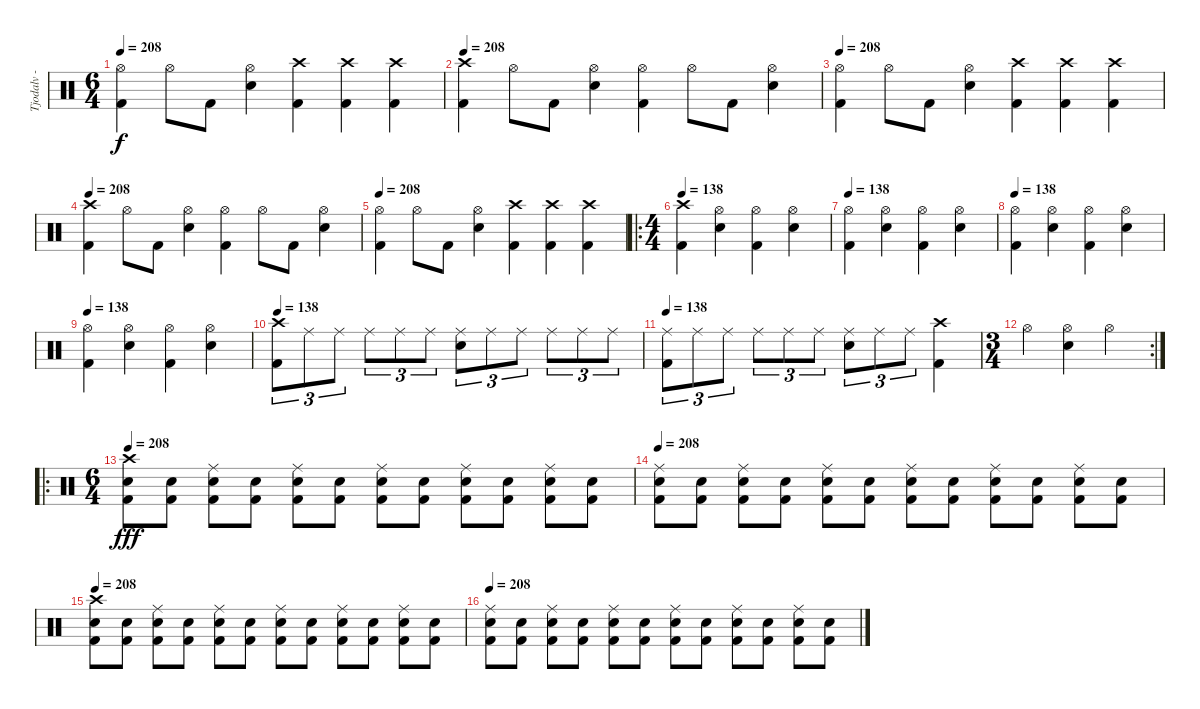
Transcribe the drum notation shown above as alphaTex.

\track ("Tjodalv - Drums" "Tjodalv - ") {instrument percussion}
\staff {score}
\articulation defaults
\ts (6 4)
\tempo 208
\clef neutral
\ks c
("Kick (hit) 2" "Hi-Hat (open)").4{dy f} "Hi-Hat (open)".8 "Kick (hit) 2".8 ("Snare (hit) 2" "Hi-Hat (open)").4 ("Kick (hit) 2" "Crash high (hit)").4 ("Kick (hit) 2" "Crash high (hit)").4 ("Kick (hit) 2" "Crash high (hit)").4 |
\tempo 208
("Kick (hit) 2" "Crash high (hit)").4 "Hi-Hat (open)".8 "Kick (hit) 2".8 ("Snare (hit) 2" "Hi-Hat (open)").4 ("Kick (hit) 2" "Hi-Hat (open)").4 "Hi-Hat (open)".8 "Kick (hit) 2".8 ("Snare (hit) 2" "Hi-Hat (open)").4 |
\tempo 208
("Kick (hit) 2" "Hi-Hat (open)").4 "Hi-Hat (open)".8 "Kick (hit) 2".8 ("Snare (hit) 2" "Hi-Hat (open)").4 ("Kick (hit) 2" "Crash high (hit)").4 ("Kick (hit) 2" "Crash high (hit)").4 ("Kick (hit) 2" "Crash high (hit)").4 |
\tempo 208
("Kick (hit) 2" "Crash high (hit)").4 "Hi-Hat (open)".8 "Kick (hit) 2".8 ("Snare (hit) 2" "Hi-Hat (open)").4 ("Kick (hit) 2" "Hi-Hat (open)").4 "Hi-Hat (open)".8 "Kick (hit) 2".8 ("Snare (hit) 2" "Hi-Hat (open)").4 |
\tempo 208
("Kick (hit) 2" "Hi-Hat (open)").4 "Hi-Hat (open)".8 "Kick (hit) 2".8 ("Snare (hit) 2" "Hi-Hat (open)").4 ("Kick (hit) 2" "Crash high (hit)").4 ("Kick (hit) 2" "Crash high (hit)").4 ("Kick (hit) 2" "Crash high (hit)").4 |
\ro
\ts (4 4)
\tempo 138
("Kick (hit) 2" "Crash high (hit)").4 ("Snare (hit) 2" "Hi-Hat (open)").4 ("Kick (hit) 2" "Hi-Hat (open)").4 ("Snare (hit) 2" "Hi-Hat (open)").4 |
\tempo 138
("Kick (hit) 2" "Hi-Hat (open)").4 ("Snare (hit) 2" "Hi-Hat (open)").4 ("Kick (hit) 2" "Hi-Hat (open)").4 ("Snare (hit) 2" "Hi-Hat (open)").4 |
\tempo 138
("Kick (hit) 2" "Hi-Hat (open)").4 ("Snare (hit) 2" "Hi-Hat (open)").4 ("Kick (hit) 2" "Hi-Hat (open)").4 ("Snare (hit) 2" "Hi-Hat (open)").4 |
\tempo 138
("Kick (hit) 2" "Hi-Hat (open)").4 ("Snare (hit) 2" "Hi-Hat (open)").4 ("Kick (hit) 2" "Hi-Hat (open)").4 ("Snare (hit) 2" "Hi-Hat (open)").4 |
\tempo 138
("Kick (hit) 2" "Crash high (hit)").8{tu (3 2)} "Ride (middle)".8{tu (3 2)} "Ride (middle)".8{tu (3 2)} "Ride (middle)".8{tu (3 2)} "Ride (middle)".8{tu (3 2)} "Ride (middle)".8{tu (3 2)} ("Snare (hit) 2" "Ride (middle)").8{tu (3 2)} "Ride (middle)".8{tu (3 2)} "Ride (middle)".8{tu (3 2)} "Ride (middle)".8{tu (3 2)} "Ride (middle)".8{tu (3 2)} "Ride (middle)".8{tu (3 2)} |
\tempo 138
("Kick (hit) 2" "Ride (middle)").8{tu (3 2)} "Ride (middle)".8{tu (3 2)} "Ride (middle)".8{tu (3 2)} "Ride (middle)".8{tu (3 2)} "Ride (middle)".8{tu (3 2)} "Ride (middle)".8{tu (3 2)} ("Snare (hit) 2" "Ride (middle)").8{tu (3 2)} "Ride (middle)".8{tu (3 2)} "Ride (middle)".8{tu (3 2)} ("Kick (hit) 2" "Crash high (hit)").4 |
\rc 2
\ts (3 4)
"Hi-Hat (open)".4 ("Snare (hit) 2" "Hi-Hat (open)").4 "Hi-Hat (open)".4 |
\ro
\ts (6 4)
\tempo 208
("Kick (hit) 2" "Snare (hit) 2" "Crash high (hit)").8{dy fff} ("Kick (hit) 2" "Snare (hit) 2").8 ("Kick (hit) 2" "Snare (hit) 2" "Ride (middle)").8 ("Kick (hit) 2" "Snare (hit) 2").8 ("Kick (hit) 2" "Snare (hit) 2" "Ride (middle)").8 ("Kick (hit) 2" "Snare (hit) 2").8 ("Kick (hit) 2" "Snare (hit) 2" "Ride (middle)").8 ("Kick (hit) 2" "Snare (hit) 2").8 ("Kick (hit) 2" "Snare (hit) 2" "Ride (middle)").8 ("Kick (hit) 2" "Snare (hit) 2").8 ("Kick (hit) 2" "Snare (hit) 2" "Ride (middle)").8 ("Kick (hit) 2" "Snare (hit) 2").8 |
\tempo 208
("Kick (hit) 2" "Snare (hit) 2" "Ride (middle)").8 ("Kick (hit) 2" "Snare (hit) 2").8 ("Kick (hit) 2" "Snare (hit) 2" "Ride (middle)").8 ("Kick (hit) 2" "Snare (hit) 2").8 ("Kick (hit) 2" "Snare (hit) 2" "Ride (middle)").8 ("Kick (hit) 2" "Snare (hit) 2").8 ("Kick (hit) 2" "Snare (hit) 2" "Ride (middle)").8 ("Kick (hit) 2" "Snare (hit) 2").8 ("Kick (hit) 2" "Snare (hit) 2" "Ride (middle)").8 ("Kick (hit) 2" "Snare (hit) 2").8 ("Kick (hit) 2" "Snare (hit) 2" "Ride (middle)").8 ("Kick (hit) 2" "Snare (hit) 2").8 |
\tempo 208
("Kick (hit) 2" "Snare (hit) 2" "Crash high (hit)").8 ("Kick (hit) 2" "Snare (hit) 2").8 ("Kick (hit) 2" "Snare (hit) 2" "Ride (middle)").8 ("Kick (hit) 2" "Snare (hit) 2").8 ("Kick (hit) 2" "Snare (hit) 2" "Ride (middle)").8 ("Kick (hit) 2" "Snare (hit) 2").8 ("Kick (hit) 2" "Snare (hit) 2" "Ride (middle)").8 ("Kick (hit) 2" "Snare (hit) 2").8 ("Kick (hit) 2" "Snare (hit) 2" "Ride (middle)").8 ("Kick (hit) 2" "Snare (hit) 2").8 ("Kick (hit) 2" "Snare (hit) 2" "Ride (middle)").8 ("Kick (hit) 2" "Snare (hit) 2").8 |
\tempo 208
("Kick (hit) 2" "Snare (hit) 2" "Ride (middle)").8 ("Kick (hit) 2" "Snare (hit) 2").8 ("Kick (hit) 2" "Snare (hit) 2" "Ride (middle)").8 ("Kick (hit) 2" "Snare (hit) 2").8 ("Kick (hit) 2" "Snare (hit) 2" "Ride (middle)").8 ("Kick (hit) 2" "Snare (hit) 2").8 ("Kick (hit) 2" "Snare (hit) 2" "Ride (middle)").8 ("Kick (hit) 2" "Snare (hit) 2").8 ("Kick (hit) 2" "Snare (hit) 2" "Ride (middle)").8 ("Kick (hit) 2" "Snare (hit) 2").8 ("Kick (hit) 2" "Snare (hit) 2" "Ride (middle)").8 ("Kick (hit) 2" "Snare (hit) 2").8
